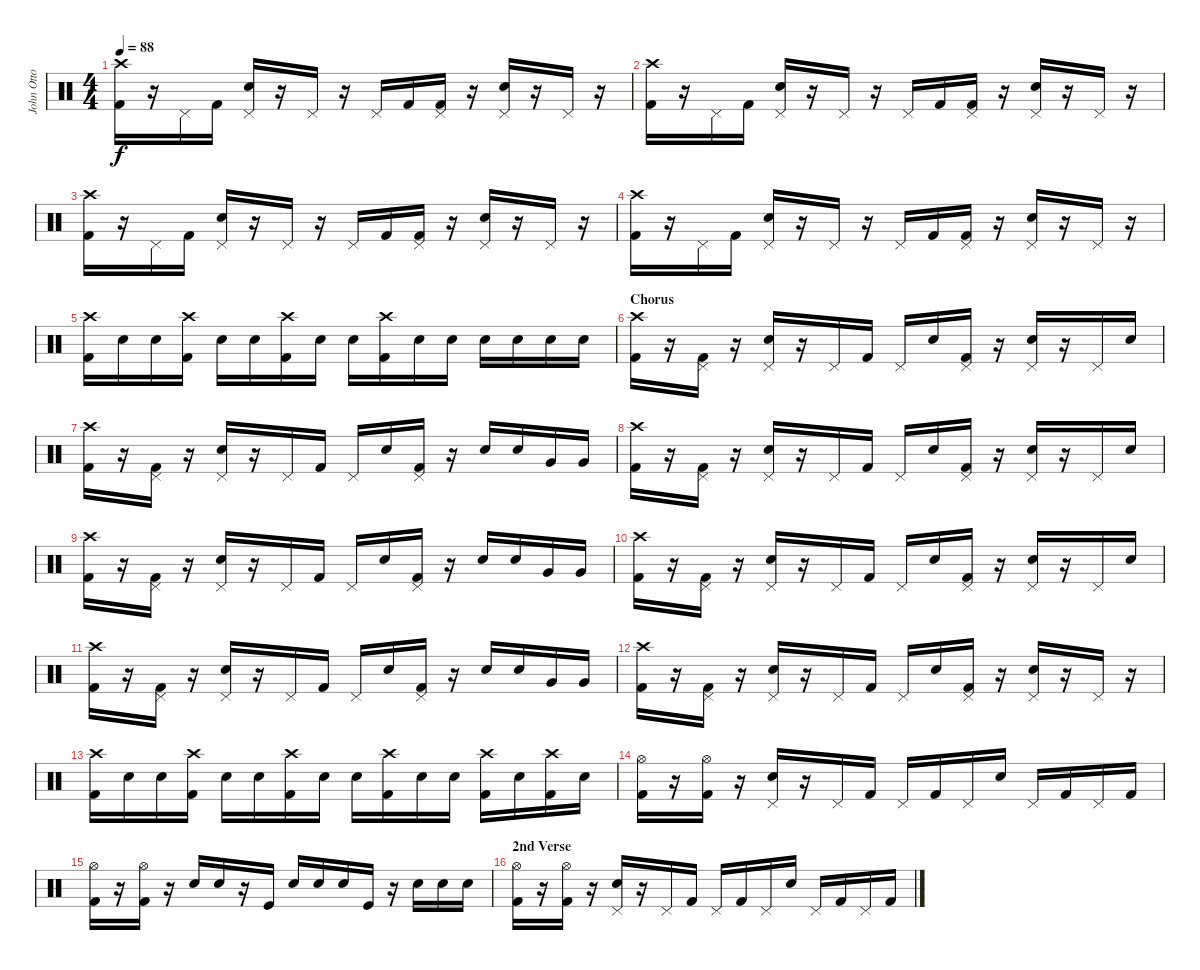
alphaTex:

\track ("John Otto" "John Otto") {instrument percussion}
\staff {score}
\articulation defaults
\ts (4 4)
\tempo 88
\clef neutral
\ks c
("Crash high (hit)" "Kick (hit) 2").16{dy f} r.16 "Pedal Hi-Hat (hit)".16 "Kick (hit) 2".16 ("Pedal Hi-Hat (hit)" "Snare (hit) 2").16 r.16 "Pedal Hi-Hat (hit)".16 r.16 "Pedal Hi-Hat (hit)".16 "Kick (hit) 2".16 ("Pedal Hi-Hat (hit)" "Kick (hit) 2").16 r.16 ("Pedal Hi-Hat (hit)" "Snare (hit) 2").16 r.16 "Pedal Hi-Hat (hit)".16 r.16 |
("Crash high (hit)" "Kick (hit) 2").16 r.16 "Pedal Hi-Hat (hit)".16 "Kick (hit) 2".16 ("Pedal Hi-Hat (hit)" "Snare (hit) 2").16 r.16 "Pedal Hi-Hat (hit)".16 r.16 "Pedal Hi-Hat (hit)".16 "Kick (hit) 2".16 ("Pedal Hi-Hat (hit)" "Kick (hit) 2").16 r.16 ("Pedal Hi-Hat (hit)" "Snare (hit) 2").16 r.16 "Pedal Hi-Hat (hit)".16 r.16 |
("Crash high (hit)" "Kick (hit) 2").16 r.16 "Pedal Hi-Hat (hit)".16 "Kick (hit) 2".16 ("Pedal Hi-Hat (hit)" "Snare (hit) 2").16 r.16 "Pedal Hi-Hat (hit)".16 r.16 "Pedal Hi-Hat (hit)".16 "Kick (hit) 2".16 ("Pedal Hi-Hat (hit)" "Kick (hit) 2").16 r.16 ("Pedal Hi-Hat (hit)" "Snare (hit) 2").16 r.16 "Pedal Hi-Hat (hit)".16 r.16 |
("Crash high (hit)" "Kick (hit) 2").16 r.16 "Pedal Hi-Hat (hit)".16 "Kick (hit) 2".16 ("Pedal Hi-Hat (hit)" "Snare (hit) 2").16 r.16 "Pedal Hi-Hat (hit)".16 r.16 "Pedal Hi-Hat (hit)".16 "Kick (hit) 2".16 ("Pedal Hi-Hat (hit)" "Kick (hit) 2").16 r.16 ("Pedal Hi-Hat (hit)" "Snare (hit) 2").16 r.16 "Pedal Hi-Hat (hit)".16 r.16 |
("Crash high (hit)" "Kick (hit) 2").16 "Snare (hit) 2".16 "Snare (hit) 2".16 ("Crash high (hit)" "Kick (hit) 2").16 "Snare (hit) 2".16 "Snare (hit) 2".16 ("Crash high (hit)" "Kick (hit) 2").16 "Snare (hit) 2".16 "Snare (hit) 2".16 ("Crash high (hit)" "Kick (hit) 2").16 "Snare (hit) 2".16 "Snare (hit) 2".16 "Snare (hit) 2".16 "Snare (hit) 2".16 "Snare (hit) 2".16 "Snare (hit) 2".16 |
\section ("" "Chorus")
("Crash high (hit)" "Kick (hit) 2").16 r.16 ("Pedal Hi-Hat (hit)" "Kick (hit) 2").16 r.16 ("Pedal Hi-Hat (hit)" "Snare (hit) 2").16 r.16 "Pedal Hi-Hat (hit)".16 "Kick (hit) 2".16 "Pedal Hi-Hat (hit)".16 "Snare (hit) 2".16 ("Pedal Hi-Hat (hit)" "Kick (hit) 2").16 r.16 ("Pedal Hi-Hat (hit)" "Snare (hit) 2").16 r.16 "Pedal Hi-Hat (hit)".16 "Electric Snare (hit)".16 |
("Crash high (hit)" "Kick (hit) 2").16 r.16 ("Pedal Hi-Hat (hit)" "Kick (hit) 2").16 r.16 ("Pedal Hi-Hat (hit)" "Snare (hit) 2").16 r.16 "Pedal Hi-Hat (hit)".16 "Kick (hit) 2".16 "Pedal Hi-Hat (hit)".16 "Snare (hit) 2".16 ("Pedal Hi-Hat (hit)" "Kick (hit) 2").16 r.16 "Electric Snare (hit)".16 "Electric Snare (hit)".16 "Very Low Tom (hit)".16 "Very Low Tom (hit)".16 |
("Crash high (hit)" "Kick (hit) 2").16 r.16 ("Pedal Hi-Hat (hit)" "Kick (hit) 2").16 r.16 ("Pedal Hi-Hat (hit)" "Snare (hit) 2").16 r.16 "Pedal Hi-Hat (hit)".16 "Kick (hit) 2".16 "Pedal Hi-Hat (hit)".16 "Snare (hit) 2".16 ("Pedal Hi-Hat (hit)" "Kick (hit) 2").16 r.16 ("Pedal Hi-Hat (hit)" "Snare (hit) 2").16 r.16 "Pedal Hi-Hat (hit)".16 "Electric Snare (hit)".16 |
("Crash high (hit)" "Kick (hit) 2").16 r.16 ("Pedal Hi-Hat (hit)" "Kick (hit) 2").16 r.16 ("Pedal Hi-Hat (hit)" "Snare (hit) 2").16 r.16 "Pedal Hi-Hat (hit)".16 "Kick (hit) 2".16 "Pedal Hi-Hat (hit)".16 "Snare (hit) 2".16 ("Pedal Hi-Hat (hit)" "Kick (hit) 2").16 r.16 "Electric Snare (hit)".16 "Electric Snare (hit)".16 "Very Low Tom (hit)".16 "Very Low Tom (hit)".16 |
("Crash high (hit)" "Kick (hit) 2").16 r.16 ("Pedal Hi-Hat (hit)" "Kick (hit) 2").16 r.16 ("Pedal Hi-Hat (hit)" "Snare (hit) 2").16 r.16 "Pedal Hi-Hat (hit)".16 "Kick (hit) 2".16 "Pedal Hi-Hat (hit)".16 "Snare (hit) 2".16 ("Pedal Hi-Hat (hit)" "Kick (hit) 2").16 r.16 ("Pedal Hi-Hat (hit)" "Snare (hit) 2").16 r.16 "Pedal Hi-Hat (hit)".16 "Electric Snare (hit)".16 |
("Crash high (hit)" "Kick (hit) 2").16 r.16 ("Pedal Hi-Hat (hit)" "Kick (hit) 2").16 r.16 ("Pedal Hi-Hat (hit)" "Snare (hit) 2").16 r.16 "Pedal Hi-Hat (hit)".16 "Kick (hit) 2".16 "Pedal Hi-Hat (hit)".16 "Snare (hit) 2".16 ("Pedal Hi-Hat (hit)" "Kick (hit) 2").16 r.16 "Electric Snare (hit)".16 "Electric Snare (hit)".16 "Very Low Tom (hit)".16 "Very Low Tom (hit)".16 |
("Crash high (hit)" "Kick (hit) 2").16 r.16 ("Pedal Hi-Hat (hit)" "Kick (hit) 2").16 r.16 ("Pedal Hi-Hat (hit)" "Snare (hit) 2").16 r.16 "Pedal Hi-Hat (hit)".16 "Kick (hit) 2".16 "Pedal Hi-Hat (hit)".16 "Snare (hit) 2".16 ("Pedal Hi-Hat (hit)" "Kick (hit) 2").16 r.16 ("Pedal Hi-Hat (hit)" "Snare (hit) 2").16 r.16 "Pedal Hi-Hat (hit)".16 r.16 |
("Crash high (hit)" "Kick (hit) 2").16 "Snare (hit) 2".16 "Snare (hit) 2".16 ("Crash high (hit)" "Kick (hit) 2").16 "Snare (hit) 2".16 "Snare (hit) 2".16 ("Crash high (hit)" "Kick (hit) 2").16 "Snare (hit) 2".16 "Snare (hit) 2".16 ("Crash high (hit)" "Kick (hit) 2").16 "Snare (hit) 2".16 "Snare (hit) 2".16 ("Crash high (hit)" "Kick (hit) 2").16 "Snare (hit) 2".16 ("Crash high (hit)" "Kick (hit) 2").16 "Snare (hit) 2".16 |
("Hi-Hat (open)" "Kick (hit) 2").16 r.16 ("Hi-Hat (open)" "Kick (hit) 2").16 r.16 ("Pedal Hi-Hat (hit)" "Snare (hit) 2").16 r.16 "Pedal Hi-Hat (hit)".16 "Kick (hit) 2".16 "Pedal Hi-Hat (hit)".16 "Kick (hit) 2".16 "Pedal Hi-Hat (hit)".16 "Snare (hit) 2".16 "Pedal Hi-Hat (hit)".16 "Kick (hit) 2".16 "Pedal Hi-Hat (hit)".16 "Kick (hit) 2".16 |
("Hi-Hat (open)" "Kick (hit) 2").16 r.16 ("Hi-Hat (open)" "Kick (hit) 2").16 r.16 "Snare (hit) 2".16 "Snare (hit) 2".16 r.16 "Kick (hit)".16 "Snare (hit) 2".16 "Snare (hit) 2".16 "Snare (hit) 2".16 "Kick (hit)".16 r.16 "Snare (hit) 2".16 "Snare (hit) 2".16 "Snare (hit) 2".16 |
\section ("" "2nd Verse")
("Hi-Hat (open)" "Kick (hit) 2").16 r.16 ("Hi-Hat (open)" "Kick (hit) 2").16 r.16 ("Pedal Hi-Hat (hit)" "Snare (hit) 2").16 r.16 "Pedal Hi-Hat (hit)".16 "Kick (hit) 2".16 "Pedal Hi-Hat (hit)".16 "Kick (hit) 2".16 "Pedal Hi-Hat (hit)".16 "Snare (hit) 2".16 "Pedal Hi-Hat (hit)".16 "Kick (hit) 2".16 "Pedal Hi-Hat (hit)".16 "Kick (hit) 2".16
